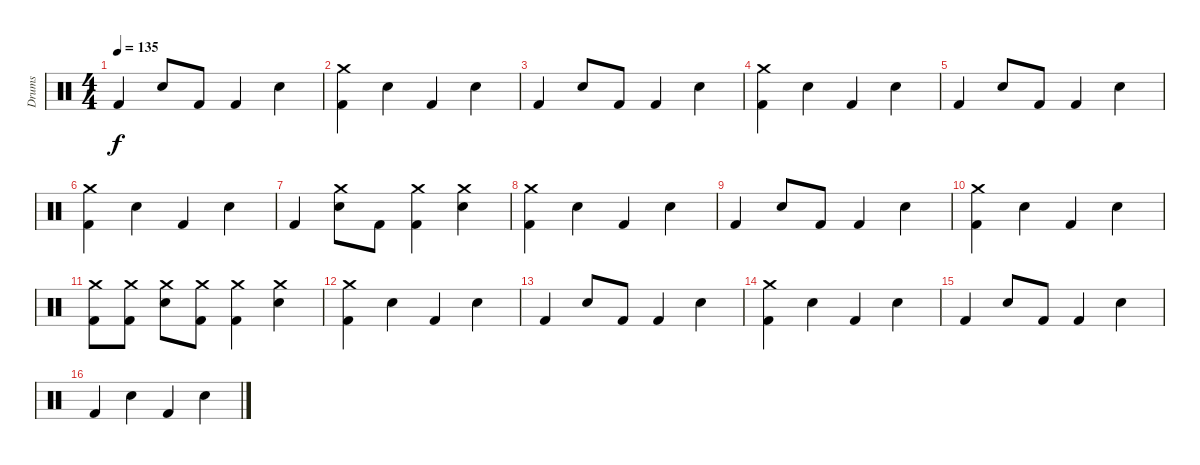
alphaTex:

\track ("Drums" "Drums") {instrument percussion}
\staff {score}
\articulation defaults
\ts (4 4)
\tempo 135
\clef neutral
\ks c "Kick (hit) 2".4{dy f} "Electric Snare (hit)".8 "Kick (hit) 2".8 "Kick (hit) 2".4 "Electric Snare (hit)".4
|
("Crash medium (hit)" "Kick (hit) 2").4 "Electric Snare (hit)".4 "Kick (hit) 2".4 "Electric Snare (hit)".4 |
"Kick (hit) 2".4 "Electric Snare (hit)".8 "Kick (hit) 2".8 "Kick (hit) 2".4 "Electric Snare (hit)".4 |
("Crash medium (hit)" "Kick (hit) 2").4 "Electric Snare (hit)".4 "Kick (hit) 2".4 "Electric Snare (hit)".4 |
"Kick (hit) 2".4 "Electric Snare (hit)".8 "Kick (hit) 2".8 "Kick (hit) 2".4 "Electric Snare (hit)".4 |
("Crash medium (hit)" "Kick (hit) 2").4 "Electric Snare (hit)".4 "Kick (hit) 2".4 "Electric Snare (hit)".4 |
"Kick (hit) 2".4 ("Crash medium (hit)" "Electric Snare (hit)").8 "Kick (hit) 2".8 ("Crash medium (hit)" "Kick (hit) 2").4 ("Crash medium (hit)" "Electric Snare (hit)").4 |
("Crash medium (hit)" "Kick (hit) 2").4 "Electric Snare (hit)".4 "Kick (hit) 2".4 "Electric Snare (hit)".4 |
"Kick (hit) 2".4 "Electric Snare (hit)".8 "Kick (hit) 2".8 "Kick (hit) 2".4 "Electric Snare (hit)".4 |
("Crash medium (hit)" "Kick (hit) 2").4 "Electric Snare (hit)".4 "Kick (hit) 2".4 "Electric Snare (hit)".4 |
("Crash medium (hit)" "Kick (hit) 2").8 ("Crash medium (hit)" "Kick (hit) 2").8 ("Crash medium (hit)" "Electric Snare (hit)").8 ("Crash medium (hit)" "Kick (hit) 2").8 ("Crash medium (hit)" "Kick (hit) 2").4 ("Crash medium (hit)" "Electric Snare (hit)").4 |
("Crash medium (hit)" "Kick (hit) 2").4 "Electric Snare (hit)".4 "Kick (hit) 2".4 "Electric Snare (hit)".4 |
"Kick (hit) 2".4 "Electric Snare (hit)".8 "Kick (hit) 2".8 "Kick (hit) 2".4 "Electric Snare (hit)".4 |
("Crash medium (hit)" "Kick (hit) 2").4 "Electric Snare (hit)".4 "Kick (hit) 2".4 "Electric Snare (hit)".4 |
"Kick (hit) 2".4 "Electric Snare (hit)".8 "Kick (hit) 2".8 "Kick (hit) 2".4 "Electric Snare (hit)".4 |
"Kick (hit) 2".4 "Electric Snare (hit)".4 "Kick (hit) 2".4 "Electric Snare (hit)".4
